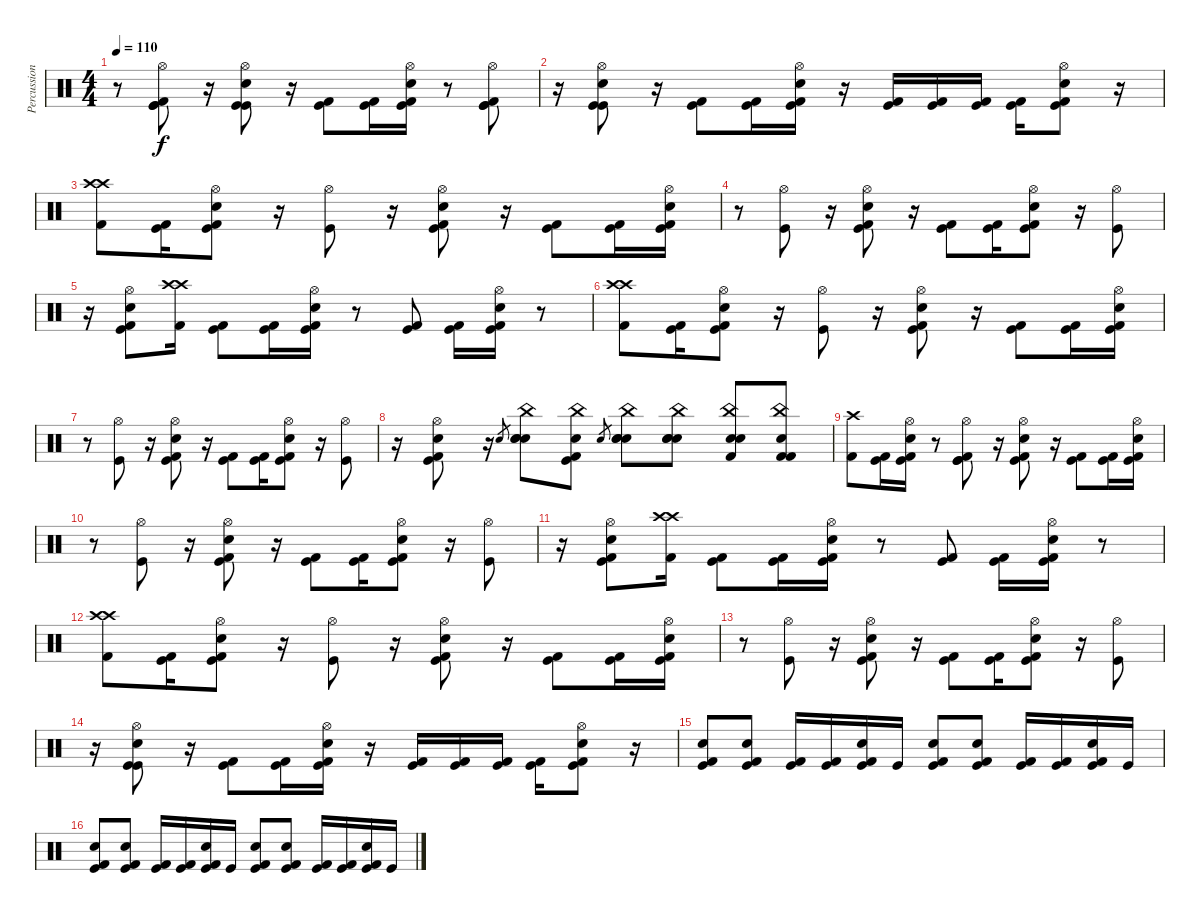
\track ("Percussion" "Percussion") {instrument percussion}
\staff {score}
\articulation defaults
\ts (4 4)
\tempo 110
\clef neutral
\ks c
r.8{dy f} ("Hi-Hat (open)" "Kick (hit) 2" "Kick (hit)" "Kick (hit)").8 r.16 ("Hi-Hat (open)" "Electric Snare (hit)" "Kick (hit)" "Kick (hit)").8 r.16 ("Kick (hit)" "Kick (hit) 2").8 ("Kick (hit)" "Kick (hit) 2").16 ("Hi-Hat (open)" "Electric Snare (hit)" "Kick (hit)" "Kick (hit) 2").16 r.8 ("Hi-Hat (open)" "Kick (hit) 2" "Kick (hit)" "Kick (hit)").8 |
r.16 ("Hi-Hat (open)" "Electric Snare (hit)" "Kick (hit)" "Kick (hit)").8 r.16 ("Kick (hit)" "Kick (hit) 2").8 ("Kick (hit)" "Kick (hit) 2").16 ("Hi-Hat (open)" "Electric Snare (hit)" "Kick (hit)" "Kick (hit) 2").16 r.16 ("Kick (hit)" "Kick (hit) 2").16 ("Kick (hit)" "Kick (hit) 2").16 ("Kick (hit)" "Kick (hit) 2").16 ("Kick (hit)" "Kick (hit) 2").16 ("Hi-Hat (open)" "Electric Snare (hit)" "Kick (hit)" "Kick (hit) 2").8 r.16 |
("Crash high (hit)" "Crash high (hit)" "Kick (hit) 2").8 ("Kick (hit) 2" "Kick (hit)").16 ("Hi-Hat (open)" "Electric Snare (hit)" "Kick (hit) 2" "Kick (hit)").8 r.16 ("Hi-Hat (open)" "Kick (hit)").8 r.16 ("Hi-Hat (open)" "Electric Snare (hit)" "Kick (hit) 2" "Kick (hit)").8 r.16 ("Kick (hit) 2" "Kick (hit)").8 ("Kick (hit) 2" "Kick (hit)").16 ("Hi-Hat (open)" "Electric Snare (hit)" "Kick (hit) 2" "Kick (hit)").16 |
r.8 ("Hi-Hat (open)" "Kick (hit)").8 r.16 ("Hi-Hat (open)" "Electric Snare (hit)" "Kick (hit) 2" "Kick (hit)").8 r.16 ("Kick (hit) 2" "Kick (hit)").8 ("Kick (hit) 2" "Kick (hit)").16 ("Hi-Hat (open)" "Electric Snare (hit)" "Kick (hit) 2" "Kick (hit)").8 r.16 ("Hi-Hat (open)" "Kick (hit)").8 |
r.16 ("Hi-Hat (open)" "Electric Snare (hit)" "Kick (hit) 2" "Kick (hit)").8 ("Crash high (hit)" "Crash high (hit)" "Kick (hit) 2").16 ("Kick (hit) 2" "Kick (hit)").8 ("Kick (hit) 2" "Kick (hit)").16 ("Hi-Hat (open)" "Electric Snare (hit)" "Kick (hit) 2" "Kick (hit)").16 r.8 ("Kick (hit) 2" "Kick (hit)").8 ("Kick (hit) 2" "Kick (hit)").16 ("Hi-Hat (open)" "Electric Snare (hit)" "Kick (hit) 2" "Kick (hit)").16 r.8 |
("Crash high (hit)" "Crash high (hit)" "Kick (hit) 2").8 ("Kick (hit) 2" "Kick (hit)").16 ("Hi-Hat (open)" "Electric Snare (hit)" "Kick (hit) 2" "Kick (hit)").8 r.16 ("Hi-Hat (open)" "Kick (hit)").8 r.16 ("Hi-Hat (open)" "Electric Snare (hit)" "Kick (hit) 2" "Kick (hit)").8 r.16 ("Kick (hit) 2" "Kick (hit)").8 ("Kick (hit) 2" "Kick (hit)").16 ("Hi-Hat (open)" "Electric Snare (hit)" "Kick (hit) 2" "Kick (hit)").16 |
r.8 ("Hi-Hat (open)" "Kick (hit)").8 r.16 ("Hi-Hat (open)" "Electric Snare (hit)" "Kick (hit) 2" "Kick (hit)").8 r.16 ("Kick (hit) 2" "Kick (hit)").8 ("Kick (hit) 2" "Kick (hit)").16 ("Hi-Hat (open)" "Electric Snare (hit)" "Kick (hit) 2" "Kick (hit)").8 r.16 ("Hi-Hat (open)" "Kick (hit)").8 |
r.16 ("Hi-Hat (open)" "Electric Snare (hit)" "Kick (hit) 2" "Kick (hit)").8 r.16 "Electric Snare (hit)".8{gr} ("China (hit)" "Electric Snare (hit)" "Electric Snare (hit)" "Electric Snare (hit)").8 ("China (hit)" "Kick (hit) 2" "Kick (hit)" "Snare (hit) 2").8 "Electric Snare (hit)".8{gr} ("China (hit)" "Electric Snare (hit)" "Electric Snare (hit)" "Electric Snare (hit)").8 ("China (hit)" "Electric Snare (hit)" "Electric Snare (hit)" "Electric Snare (hit)").8 ("China (hit)" "Snare (hit) 2" "Snare (hit) 2" "Kick (hit) 2").8 ("China (hit)" "Kick (hit) 2" "Kick (hit) 2" "Snare (hit) 2").8 |
("Crash high (hit)" "Kick (hit) 2").8 ("Kick (hit)" "Kick (hit) 2").16 ("Hi-Hat (open)" "Electric Snare (hit)" "Kick (hit)" "Kick (hit) 2").16 r.8 ("Hi-Hat (open)" "Kick (hit) 2" "Kick (hit)" "Kick (hit)").8 r.16 ("Hi-Hat (open)" "Electric Snare (hit)" "Kick (hit)" "Kick (hit) 2").8 r.16 ("Kick (hit)" "Kick (hit) 2").8 ("Kick (hit)" "Kick (hit) 2").16 ("Hi-Hat (open)" "Electric Snare (hit)" "Kick (hit)" "Kick (hit) 2").16 |
r.8 ("Hi-Hat (open)" "Kick (hit)").8 r.16 ("Hi-Hat (open)" "Electric Snare (hit)" "Kick (hit) 2" "Kick (hit)").8 r.16 ("Kick (hit) 2" "Kick (hit)").8 ("Kick (hit) 2" "Kick (hit)").16 ("Hi-Hat (open)" "Electric Snare (hit)" "Kick (hit) 2" "Kick (hit)").8 r.16 ("Hi-Hat (open)" "Kick (hit)").8 |
r.16 ("Hi-Hat (open)" "Electric Snare (hit)" "Kick (hit) 2" "Kick (hit)").8 ("Crash high (hit)" "Crash high (hit)" "Kick (hit) 2").16 ("Kick (hit) 2" "Kick (hit)").8 ("Kick (hit) 2" "Kick (hit)").16 ("Hi-Hat (open)" "Electric Snare (hit)" "Kick (hit) 2" "Kick (hit)").16 r.8 ("Kick (hit) 2" "Kick (hit)").8 ("Kick (hit) 2" "Kick (hit)").16 ("Hi-Hat (open)" "Electric Snare (hit)" "Kick (hit) 2" "Kick (hit)").16 r.8 |
("Crash high (hit)" "Crash high (hit)" "Kick (hit) 2").8 ("Kick (hit) 2" "Kick (hit)").16 ("Hi-Hat (open)" "Electric Snare (hit)" "Kick (hit) 2" "Kick (hit)").8 r.16 ("Hi-Hat (open)" "Kick (hit)").8 r.16 ("Hi-Hat (open)" "Electric Snare (hit)" "Kick (hit) 2" "Kick (hit)").8 r.16 ("Kick (hit) 2" "Kick (hit)").8 ("Kick (hit) 2" "Kick (hit)").16 ("Hi-Hat (open)" "Electric Snare (hit)" "Kick (hit) 2" "Kick (hit)").16 |
r.8 ("Hi-Hat (open)" "Kick (hit)").8 r.16 ("Hi-Hat (open)" "Electric Snare (hit)" "Kick (hit) 2" "Kick (hit)").8 r.16 ("Kick (hit) 2" "Kick (hit)").8 ("Kick (hit) 2" "Kick (hit)").16 ("Hi-Hat (open)" "Electric Snare (hit)" "Kick (hit) 2" "Kick (hit)").8 r.16 ("Hi-Hat (open)" "Kick (hit)").8 |
r.16 ("Hi-Hat (open)" "Electric Snare (hit)" "Kick (hit)" "Kick (hit)").8 r.16 ("Kick (hit)" "Kick (hit) 2").8 ("Kick (hit)" "Kick (hit) 2").16 ("Hi-Hat (open)" "Electric Snare (hit)" "Kick (hit)" "Kick (hit) 2").16 r.16 ("Kick (hit)" "Kick (hit) 2").16 ("Kick (hit)" "Kick (hit) 2").16 ("Kick (hit)" "Kick (hit) 2").16 ("Kick (hit)" "Kick (hit) 2").16 ("Hi-Hat (open)" "Electric Snare (hit)" "Kick (hit)" "Kick (hit) 2").8 r.16 |
("Snare (hit) 2" "Kick (hit)" "Kick (hit) 2").8 ("Electric Snare (hit)" "Kick (hit)" "Kick (hit) 2").8 ("Kick (hit)" "Kick (hit) 2").16 ("Kick (hit)" "Kick (hit) 2").16 ("Electric Snare (hit)" "Kick (hit)" "Kick (hit) 2").16 "Kick (hit)".16 ("Snare (hit) 2" "Kick (hit)" "Kick (hit) 2").8 ("Electric Snare (hit)" "Kick (hit)" "Kick (hit) 2").8 ("Kick (hit)" "Kick (hit) 2").16 ("Kick (hit)" "Kick (hit) 2").16 ("Electric Snare (hit)" "Kick (hit)" "Kick (hit) 2").16 "Kick (hit)".16 |
("Snare (hit) 2" "Kick (hit)" "Kick (hit) 2").8 ("Electric Snare (hit)" "Kick (hit)" "Kick (hit) 2").8 ("Kick (hit)" "Kick (hit) 2").16 ("Kick (hit)" "Kick (hit) 2").16 ("Electric Snare (hit)" "Kick (hit)" "Kick (hit) 2").16 "Kick (hit)".16 ("Snare (hit) 2" "Kick (hit)" "Kick (hit) 2").8 ("Electric Snare (hit)" "Kick (hit)" "Kick (hit) 2").8 ("Kick (hit)" "Kick (hit) 2").16 ("Kick (hit)" "Kick (hit) 2").16 ("Electric Snare (hit)" "Kick (hit)" "Kick (hit) 2").16 "Kick (hit)".16
